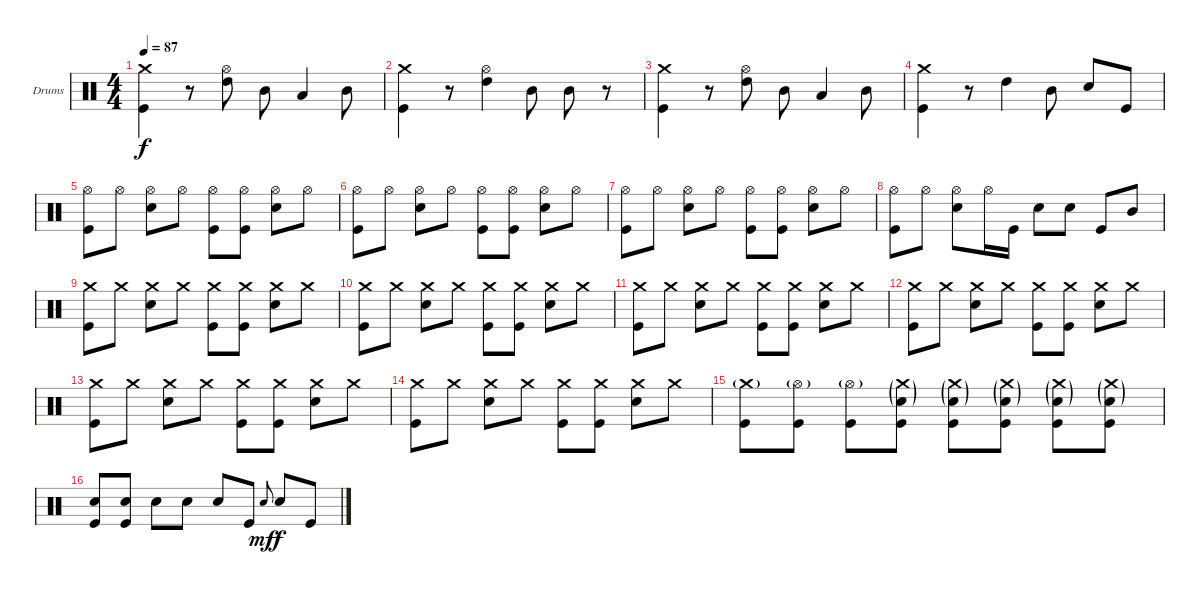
\bracketExtendMode groupsimilarinstruments
\firstSystemTrackNameOrientation horizontal
\otherSystemsTrackNameOrientation horizontal
\track ("Drumkit" "Drums") {instrument percussion}
\staff {score}
\articulation defaults
\ts (4 4)
\tempo 87
\clef neutral
\ks c
("Crash medium (hit)" "Kick (hit)").4{dy f} r.8 ("Hi-Hat (open)" "High Tom (hit)").8 "Mid Tom (hit)".8 "Low Tom (hit)".4 "Mid Tom (hit)".8 |
("Crash medium (hit)" "Kick (hit)").4 r.8 ("Hi-Hat (open)" "High Tom (hit)").4 "Mid Tom (hit)".8 "Mid Tom (hit)".8 r.8 |
("Crash medium (hit)" "Kick (hit)").4 r.8 ("Hi-Hat (open)" "High Tom (hit)").8 "Mid Tom (hit)".8 "Low Tom (hit)".4 "Mid Tom (hit)".8 |
("Crash medium (hit)" "Kick (hit)").4 r.8 "High Tom (hit)".4 "Mid Tom (hit)".8 "Snare (hit) 2".8 "Kick (hit)".8 |
("Hi-Hat (open)" "Kick (hit)").8 "Hi-Hat (open)".8 ("Hi-Hat (open)" "Snare (hit) 2").8 "Hi-Hat (open)".8 ("Hi-Hat (open)" "Kick (hit)").8 ("Hi-Hat (open)" "Kick (hit)").8 ("Hi-Hat (open)" "Snare (hit) 2").8 "Hi-Hat (open)".8 |
("Hi-Hat (open)" "Kick (hit)").8 "Hi-Hat (open)".8 ("Hi-Hat (open)" "Snare (hit) 2").8 "Hi-Hat (open)".8 ("Hi-Hat (open)" "Kick (hit)").8 ("Hi-Hat (open)" "Kick (hit)").8 ("Hi-Hat (open)" "Snare (hit) 2").8 "Hi-Hat (open)".8 |
("Hi-Hat (open)" "Kick (hit)").8 "Hi-Hat (open)".8 ("Hi-Hat (open)" "Snare (hit) 2").8 "Hi-Hat (open)".8 ("Hi-Hat (open)" "Kick (hit)").8 ("Hi-Hat (open)" "Kick (hit)").8 ("Hi-Hat (open)" "Snare (hit) 2").8 "Hi-Hat (open)".8 |
("Hi-Hat (open)" "Kick (hit)").8 "Hi-Hat (open)".8 ("Hi-Hat (open)" "Snare (hit) 2").8 "Hi-Hat (open)".16 "Kick (hit)".16 "Snare (hit) 2".8 "Snare (hit) 2".8 "Kick (hit)".8 "Mid Tom (hit)".8 |
("Crash medium (hit)" "Kick (hit)").8 "Crash medium (hit)".8 ("Crash medium (hit)" "Snare (hit) 2").8 "Crash medium (hit)".8 ("Crash medium (hit)" "Kick (hit)").8 ("Crash medium (hit)" "Kick (hit)").8 ("Crash medium (hit)" "Snare (hit) 2").8 "Crash medium (hit)".8 |
("Crash medium (hit)" "Kick (hit)").8 "Crash medium (hit)".8 ("Crash medium (hit)" "Snare (hit) 2").8 "Crash medium (hit)".8 ("Crash medium (hit)" "Kick (hit)").8 ("Crash medium (hit)" "Kick (hit)").8 ("Crash medium (hit)" "Snare (hit) 2").8 "Crash medium (hit)".8 |
("Crash medium (hit)" "Kick (hit)").8 "Crash medium (hit)".8 ("Crash medium (hit)" "Snare (hit) 2").8 "Crash medium (hit)".8 ("Crash medium (hit)" "Kick (hit)").8 ("Crash medium (hit)" "Kick (hit)").8 ("Crash medium (hit)" "Snare (hit) 2").8 "Crash medium (hit)".8 |
("Crash medium (hit)" "Kick (hit)").8 "Crash medium (hit)".8 ("Crash medium (hit)" "Snare (hit) 2").8 "Crash medium (hit)".8 ("Crash medium (hit)" "Kick (hit)").8 ("Crash medium (hit)" "Kick (hit)").8 ("Crash medium (hit)" "Snare (hit) 2").8 "Crash medium (hit)".8 |
("Crash medium (hit)" "Kick (hit)").8 "Crash medium (hit)".8 ("Crash medium (hit)" "Snare (hit) 2").8 "Crash medium (hit)".8 ("Crash medium (hit)" "Kick (hit)").8 ("Crash medium (hit)" "Kick (hit)").8 ("Crash medium (hit)" "Snare (hit) 2").8 "Crash medium (hit)".8 |
("Crash medium (hit)" "Kick (hit)").8 "Crash medium (hit)".8 ("Crash medium (hit)" "Snare (hit) 2").8 "Crash medium (hit)".8 ("Crash medium (hit)" "Kick (hit)").8 ("Crash medium (hit)" "Kick (hit)").8 ("Crash medium (hit)" "Snare (hit) 2").8 "Crash medium (hit)".8 |
("Crash medium (hit)"{g} "Kick (hit)").8 ("Hi-Hat (open)"{g} "Kick (hit)").8 ("Hi-Hat (open)"{g} "Kick (hit)").8 ("Crash medium (hit)"{g} "Snare (hit) 2"{g} "Kick (hit)").8 ("Crash medium (hit)"{g} "Snare (hit) 2"{g} "Kick (hit)").8 ("Crash medium (hit)"{g} "Snare (hit) 2"{g} "Kick (hit)").8 ("Crash medium (hit)"{g} "Snare (hit) 2"{g} "Kick (hit)").8 ("Crash medium (hit)"{g} "Snare (hit) 2"{g} "Kick (hit)").8 |
("Snare (hit) 2" "Kick (hit)").8 ("Snare (hit) 2" "Kick (hit)").8 "Snare (hit) 2".8 "Snare (hit) 2".8 "Snare (hit) 2".8 "Kick (hit)".8 "Snare (hit) 2".8{gr onbeat dy mf} "Snare (hit) 2".8{dy f} "Kick (hit)".8
